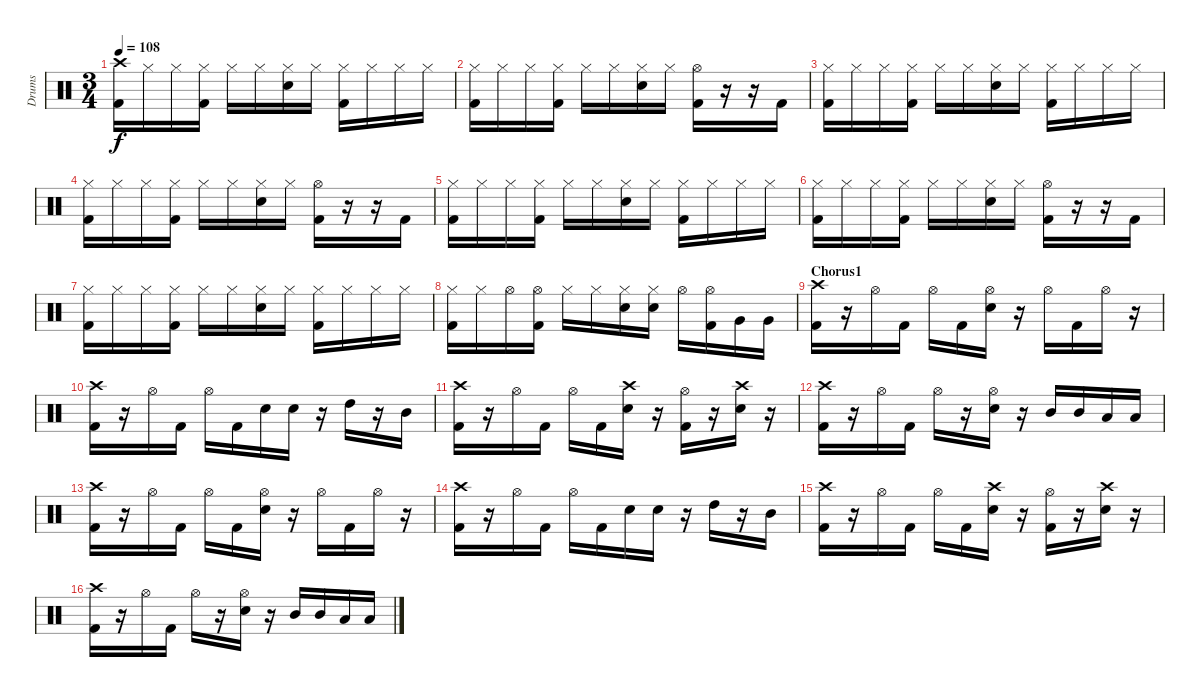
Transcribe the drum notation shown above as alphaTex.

\track ("Drums" "Drums") {instrument percussion}
\staff {score}
\articulation defaults
\ts (3 4)
\tempo 108
\clef neutral
\ks c
("Crash high (hit)" "Kick (hit) 2").16{dy f} "Hi-Hat (closed)".16 "Hi-Hat (closed)".16 ("Hi-Hat (closed)" "Kick (hit) 2").16 "Hi-Hat (closed)".16 "Hi-Hat (closed)".16 ("Hi-Hat (closed)" "Electric Snare (hit)").16 "Hi-Hat (closed)".16 ("Hi-Hat (closed)" "Kick (hit) 2").16 "Hi-Hat (closed)".16 "Hi-Hat (closed)".16 "Hi-Hat (closed)".16 |
("Hi-Hat (closed)" "Kick (hit) 2").16 "Hi-Hat (closed)".16 "Hi-Hat (closed)".16 ("Hi-Hat (closed)" "Kick (hit) 2").16 "Hi-Hat (closed)".16 "Hi-Hat (closed)".16 ("Hi-Hat (closed)" "Electric Snare (hit)").16 "Hi-Hat (closed)".16 ("Hi-Hat (open)" "Kick (hit) 2").16 r.16 r.16 "Kick (hit) 2".16 |
("Hi-Hat (closed)" "Kick (hit) 2").16 "Hi-Hat (closed)".16 "Hi-Hat (closed)".16 ("Hi-Hat (closed)" "Kick (hit) 2").16 "Hi-Hat (closed)".16 "Hi-Hat (closed)".16 ("Hi-Hat (closed)" "Electric Snare (hit)").16 "Hi-Hat (closed)".16 ("Hi-Hat (closed)" "Kick (hit) 2").16 "Hi-Hat (closed)".16 "Hi-Hat (closed)".16 "Hi-Hat (closed)".16 |
("Hi-Hat (closed)" "Kick (hit) 2").16 "Hi-Hat (closed)".16 "Hi-Hat (closed)".16 ("Hi-Hat (closed)" "Kick (hit) 2").16 "Hi-Hat (closed)".16 "Hi-Hat (closed)".16 ("Hi-Hat (closed)" "Electric Snare (hit)").16 "Hi-Hat (closed)".16 ("Hi-Hat (open)" "Kick (hit) 2").16 r.16 r.16 "Kick (hit) 2".16 |
("Hi-Hat (closed)" "Kick (hit) 2").16 "Hi-Hat (closed)".16 "Hi-Hat (closed)".16 ("Hi-Hat (closed)" "Kick (hit) 2").16 "Hi-Hat (closed)".16 "Hi-Hat (closed)".16 ("Hi-Hat (closed)" "Electric Snare (hit)").16 "Hi-Hat (closed)".16 ("Hi-Hat (closed)" "Kick (hit) 2").16 "Hi-Hat (closed)".16 "Hi-Hat (closed)".16 "Hi-Hat (closed)".16 |
("Hi-Hat (closed)" "Kick (hit) 2").16 "Hi-Hat (closed)".16 "Hi-Hat (closed)".16 ("Hi-Hat (closed)" "Kick (hit) 2").16 "Hi-Hat (closed)".16 "Hi-Hat (closed)".16 ("Hi-Hat (closed)" "Electric Snare (hit)").16 "Hi-Hat (closed)".16 ("Hi-Hat (open)" "Kick (hit) 2").16 r.16 r.16 "Kick (hit) 2".16 |
("Hi-Hat (closed)" "Kick (hit) 2").16 "Hi-Hat (closed)".16 "Hi-Hat (closed)".16 ("Hi-Hat (closed)" "Kick (hit) 2").16 "Hi-Hat (closed)".16 "Hi-Hat (closed)".16 ("Hi-Hat (closed)" "Electric Snare (hit)").16 "Hi-Hat (closed)".16 ("Hi-Hat (closed)" "Kick (hit) 2").16 "Hi-Hat (closed)".16 "Hi-Hat (closed)".16 "Hi-Hat (closed)".16 |
("Hi-Hat (closed)" "Kick (hit) 2").16 "Hi-Hat (closed)".16 "Hi-Hat (open)".16 ("Hi-Hat (open)" "Kick (hit) 2").16 "Hi-Hat (closed)".16 "Hi-Hat (closed)".16 ("Hi-Hat (closed)" "Electric Snare (hit)").16 ("Hi-Hat (closed)" "Electric Snare (hit)").16 "Hi-Hat (open)".16 ("Hi-Hat (open)" "Kick (hit) 2").16 "Very Low Tom (hit)".16 "Very Low Tom (hit)".16 |
\section ("" "Chorus1")
("Crash high (hit)" "Kick (hit) 2").16 r.16 "Hi-Hat (open)".16 "Kick (hit) 2".16 "Hi-Hat (open)".16 "Kick (hit) 2".16 ("Hi-Hat (open)" "Electric Snare (hit)").16 r.16 "Hi-Hat (open)".16 "Kick (hit) 2".16 "Hi-Hat (open)".16 r.16 |
("Crash high (hit)" "Kick (hit) 2").16 r.16 "Hi-Hat (open)".16 "Kick (hit) 2".16 "Hi-Hat (open)".16 "Kick (hit) 2".16 "Electric Snare (hit)".16 "Electric Snare (hit)".16 r.16 "High Tom (hit)".16 r.16 "Mid Tom (hit)".16 |
("Crash high (hit)" "Kick (hit) 2").16 r.16 "Hi-Hat (open)".16 "Kick (hit) 2".16 "Hi-Hat (open)".16 "Kick (hit) 2".16 ("Crash high (hit)" "Electric Snare (hit)").16 r.16 ("Hi-Hat (open)" "Kick (hit) 2").16 r.16 ("Crash high (hit)" "Electric Snare (hit)").16 r.16 |
("Crash high (hit)" "Kick (hit) 2").16 r.16 "Hi-Hat (open)".16 "Kick (hit) 2".16 "Hi-Hat (open)".16 r.16 ("Hi-Hat (open)" "Electric Snare (hit)").16 r.16 "Mid Tom (hit)".16 "Mid Tom (hit)".16 "Low Tom (hit)".16 "Low Tom (hit)".16 |
("Crash high (hit)" "Kick (hit) 2").16 r.16 "Hi-Hat (open)".16 "Kick (hit) 2".16 "Hi-Hat (open)".16 "Kick (hit) 2".16 ("Hi-Hat (open)" "Electric Snare (hit)").16 r.16 "Hi-Hat (open)".16 "Kick (hit) 2".16 "Hi-Hat (open)".16 r.16 |
("Crash high (hit)" "Kick (hit) 2").16 r.16 "Hi-Hat (open)".16 "Kick (hit) 2".16 "Hi-Hat (open)".16 "Kick (hit) 2".16 "Electric Snare (hit)".16 "Electric Snare (hit)".16 r.16 "High Tom (hit)".16 r.16 "Mid Tom (hit)".16 |
("Crash high (hit)" "Kick (hit) 2").16 r.16 "Hi-Hat (open)".16 "Kick (hit) 2".16 "Hi-Hat (open)".16 "Kick (hit) 2".16 ("Crash high (hit)" "Electric Snare (hit)").16 r.16 ("Hi-Hat (open)" "Kick (hit) 2").16 r.16 ("Crash high (hit)" "Electric Snare (hit)").16 r.16 |
("Crash high (hit)" "Kick (hit) 2").16 r.16 "Hi-Hat (open)".16 "Kick (hit) 2".16 "Hi-Hat (open)".16 r.16 ("Hi-Hat (open)" "Electric Snare (hit)").16 r.16 "Mid Tom (hit)".16 "Mid Tom (hit)".16 "Low Tom (hit)".16 "Low Tom (hit)".16
